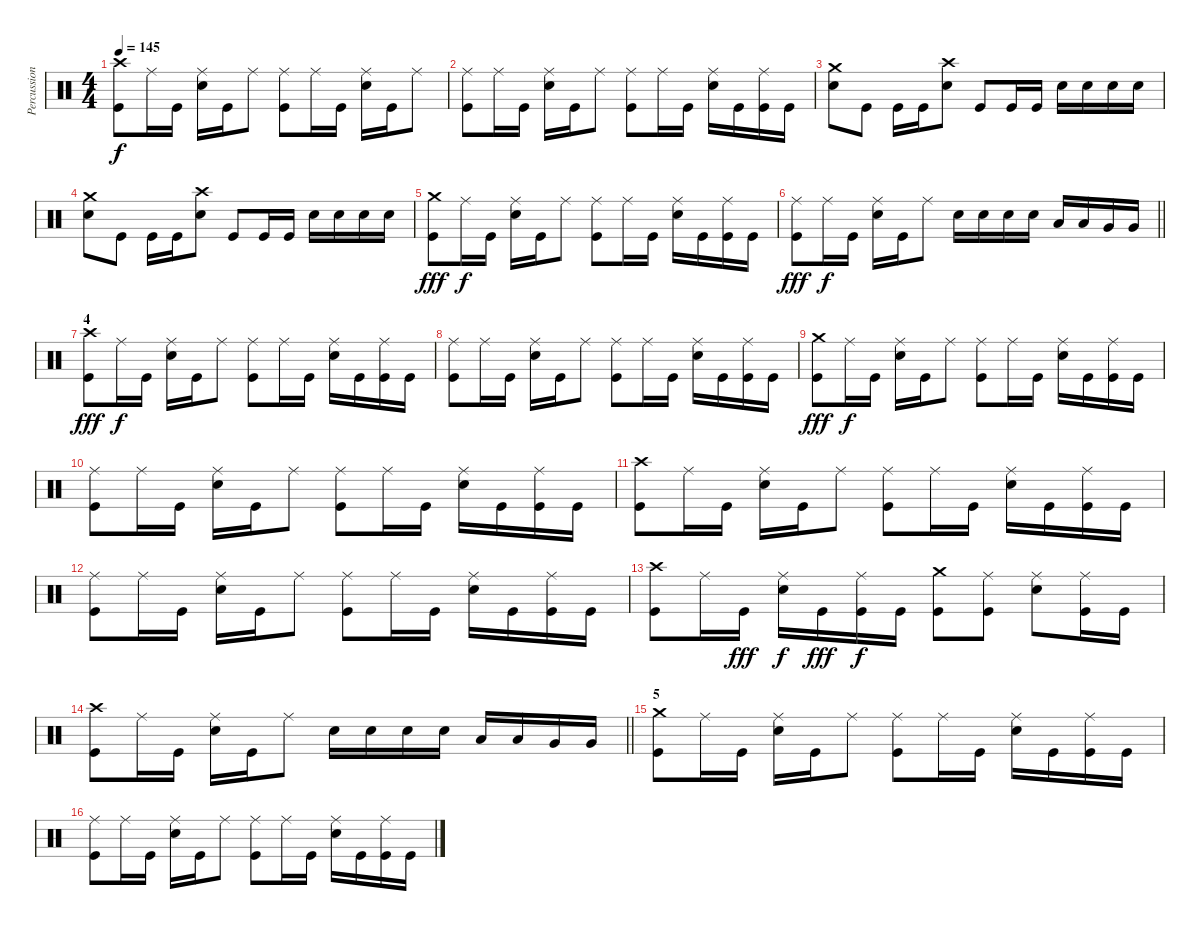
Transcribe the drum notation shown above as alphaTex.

\track ("Percussion" "Percussion") {instrument percussion}
\staff {score}
\articulation defaults
\ts (4 4)
\tempo 145
\clef neutral
\ks c
("Crash high (hit)" "Kick (hit)").8{dy f} "Ride (middle)".16 "Kick (hit)".16 ("Ride (middle)" "Snare (hit) 2").16 "Kick (hit)".16 "Ride (middle)".8 ("Ride (middle)" "Kick (hit)").8 "Ride (middle)".16 "Kick (hit)".16 ("Ride (middle)" "Snare (hit) 2").16 "Kick (hit)".16 "Ride (middle)".8 |
("Ride (middle)" "Kick (hit)").8 "Ride (middle)".16 "Kick (hit)".16 ("Ride (middle)" "Snare (hit) 2").16 "Kick (hit)".16 "Ride (middle)".8 ("Ride (middle)" "Kick (hit)").8 "Ride (middle)".16 "Kick (hit)".16 ("Ride (middle)" "Snare (hit) 2").16 "Kick (hit)".16 ("Ride (middle)" "Kick (hit)").16 "Kick (hit)".16 |
("Crash medium (hit)" "Snare (hit) 2").8 "Kick (hit)".8 "Kick (hit)".16 "Kick (hit)".16 ("Crash high (hit)" "Snare (hit) 2").8 "Kick (hit)".8 "Kick (hit)".16 "Kick (hit)".16 "Snare (hit) 2".16 "Snare (hit) 2".16 "Snare (hit) 2".16 "Snare (hit) 2".16 |
("Crash medium (hit)" "Snare (hit) 2").8 "Kick (hit)".8 "Kick (hit)".16 "Kick (hit)".16 ("Crash high (hit)" "Snare (hit) 2").8 "Kick (hit)".8 "Kick (hit)".16 "Kick (hit)".16 "Snare (hit) 2".16 "Snare (hit) 2".16 "Snare (hit) 2".16 "Snare (hit) 2".16 |
("Crash medium (hit)" "Kick (hit)").8{dy fff} "Ride (middle)".16{dy f} "Kick (hit)".16 ("Ride (middle)" "Snare (hit) 2").16 "Kick (hit)".16 "Ride (middle)".8 ("Ride (middle)" "Kick (hit)").8 "Ride (middle)".16 "Kick (hit)".16 ("Ride (middle)" "Snare (hit) 2").16 "Kick (hit)".16 ("Ride (middle)" "Kick (hit)").16 "Kick (hit)".16 |
\barLineRight lightlight
("Ride (middle)" "Kick (hit)").8{dy fff} "Ride (middle)".16{dy f} "Kick (hit)".16 ("Ride (middle)" "Snare (hit) 2").16 "Kick (hit)".16 "Ride (middle)".8 "Snare (hit) 2".16 "Snare (hit) 2".16 "Snare (hit) 2".16 "Snare (hit) 2".16 "Low Tom (hit)".16 "Low Tom (hit)".16 "Very Low Tom (hit)".16 "Very Low Tom (hit)".16 |
\section ("" "4")
("Crash high (hit)" "Kick (hit)").8{dy fff} "Ride (middle)".16{dy f} "Kick (hit)".16 ("Ride (middle)" "Snare (hit) 2").16 "Kick (hit)".16 "Ride (middle)".8 ("Ride (middle)" "Kick (hit)").8 "Ride (middle)".16 "Kick (hit)".16 ("Ride (middle)" "Snare (hit) 2").16 "Kick (hit)".16 ("Ride (middle)" "Kick (hit)").16 "Kick (hit)".16 |
("Ride (middle)" "Kick (hit)").8 "Ride (middle)".16 "Kick (hit)".16 ("Ride (middle)" "Snare (hit) 2").16 "Kick (hit)".16 "Ride (middle)".8 ("Ride (middle)" "Kick (hit)").8 "Ride (middle)".16 "Kick (hit)".16 ("Ride (middle)" "Snare (hit) 2").16 "Kick (hit)".16 ("Ride (middle)" "Kick (hit)").16 "Kick (hit)".16 |
("Crash medium (hit)" "Kick (hit)").8{dy fff} "Ride (middle)".16{dy f} "Kick (hit)".16 ("Ride (middle)" "Snare (hit) 2").16 "Kick (hit)".16 "Ride (middle)".8 ("Ride (middle)" "Kick (hit)").8 "Ride (middle)".16 "Kick (hit)".16 ("Ride (middle)" "Snare (hit) 2").16 "Kick (hit)".16 ("Ride (middle)" "Kick (hit)").16 "Kick (hit)".16 |
("Ride (middle)" "Kick (hit)").8 "Ride (middle)".16 "Kick (hit)".16 ("Ride (middle)" "Snare (hit) 2").16 "Kick (hit)".16 "Ride (middle)".8 ("Ride (middle)" "Kick (hit)").8 "Ride (middle)".16 "Kick (hit)".16 ("Ride (middle)" "Snare (hit) 2").16 "Kick (hit)".16 ("Ride (middle)" "Kick (hit)").16 "Kick (hit)".16 |
("Crash high (hit)" "Kick (hit)").8 "Ride (middle)".16 "Kick (hit)".16 ("Ride (middle)" "Snare (hit) 2").16 "Kick (hit)".16 "Ride (middle)".8 ("Ride (middle)" "Kick (hit)").8 "Ride (middle)".16 "Kick (hit)".16 ("Ride (middle)" "Snare (hit) 2").16 "Kick (hit)".16 ("Ride (middle)" "Kick (hit)").16 "Kick (hit)".16 |
("Ride (middle)" "Kick (hit)").8 "Ride (middle)".16 "Kick (hit)".16 ("Ride (middle)" "Snare (hit) 2").16 "Kick (hit)".16 "Ride (middle)".8 ("Ride (middle)" "Kick (hit)").8 "Ride (middle)".16 "Kick (hit)".16 ("Ride (middle)" "Snare (hit) 2").16 "Kick (hit)".16 ("Ride (middle)" "Kick (hit)").16 "Kick (hit)".16 |
("Crash high (hit)" "Kick (hit)").8 "Ride (middle)".16 "Kick (hit)".16{dy fff} ("Ride (middle)" "Snare (hit) 2").16{dy f} "Kick (hit)".16{dy fff} ("Ride (middle)" "Kick (hit)").16{dy f} "Kick (hit)".16 ("Crash medium (hit)" "Kick (hit)").8 ("Ride (middle)" "Kick (hit)").8 ("Ride (middle)" "Snare (hit) 2").8 ("Ride (middle)" "Kick (hit)").16 "Kick (hit)".16 |
\barLineRight lightlight
("Crash high (hit)" "Kick (hit)").8 "Ride (middle)".16 "Kick (hit)".16 ("Ride (middle)" "Snare (hit) 2").16 "Kick (hit)".16 "Ride (middle)".8 "Snare (hit) 2".16 "Snare (hit) 2".16 "Snare (hit) 2".16 "Snare (hit) 2".16 "Low Tom (hit)".16 "Low Tom (hit)".16 "Very Low Tom (hit)".16 "Very Low Tom (hit)".16 |
\section ("" "5")
("Crash medium (hit)" "Kick (hit)").8 "Ride (middle)".16 "Kick (hit)".16 ("Ride (middle)" "Snare (hit) 2").16 "Kick (hit)".16 "Ride (middle)".8 ("Ride (middle)" "Kick (hit)").8 "Ride (middle)".16 "Kick (hit)".16 ("Ride (middle)" "Snare (hit) 2").16 "Kick (hit)".16 ("Ride (middle)" "Kick (hit)").16 "Kick (hit)".16 |
("Ride (middle)" "Kick (hit)").8 "Ride (middle)".16 "Kick (hit)".16 ("Ride (middle)" "Snare (hit) 2").16 "Kick (hit)".16 "Ride (middle)".8 ("Ride (middle)" "Kick (hit)").8 "Ride (middle)".16 "Kick (hit)".16 ("Ride (middle)" "Snare (hit) 2").16 "Kick (hit)".16 ("Ride (middle)" "Kick (hit)").16 "Kick (hit)".16
